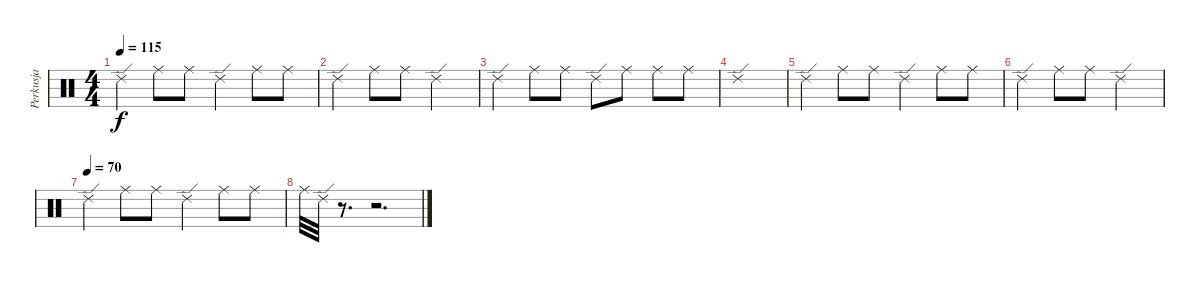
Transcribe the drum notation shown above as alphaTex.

\track ("Perkusja" "Perkusja") {instrument percussion}
\staff {score}
\articulation defaults
\ts (4 4)
\tempo 115
\clef neutral
\ks c "Ride (edge) 2".4{dy f} "Ride (middle)".8 "Ride (middle)".8 "Ride (edge) 2".4 "Ride (middle)".8 "Ride (middle)".8
|
"Ride (edge) 2".4 "Ride (middle)".8 "Ride (middle)".8 "Ride (edge) 2".2 |
"Ride (edge) 2".4 "Ride (middle)".8 "Ride (middle)".8 "Ride (edge) 2".8 "Ride (middle)".8 "Ride (middle)".8 "Ride (middle)".8 |
"Ride (edge) 2".1 |
"Ride (edge) 2".4 "Ride (middle)".8 "Ride (middle)".8 "Ride (edge) 2".4 "Ride (middle)".8 "Ride (middle)".8 |
"Ride (edge) 2".4 "Ride (middle)".8 "Ride (middle)".8 "Ride (edge) 2".2 |
\tempo (70)
"Ride (edge) 2".4 "Ride (middle)".8 "Ride (middle)".8 "Ride (edge) 2".4 "Ride (middle)".8 "Ride (middle)".8 |
"Ride (middle)".32 "Ride (edge) 2".32 r.8{d} r.2{d}
